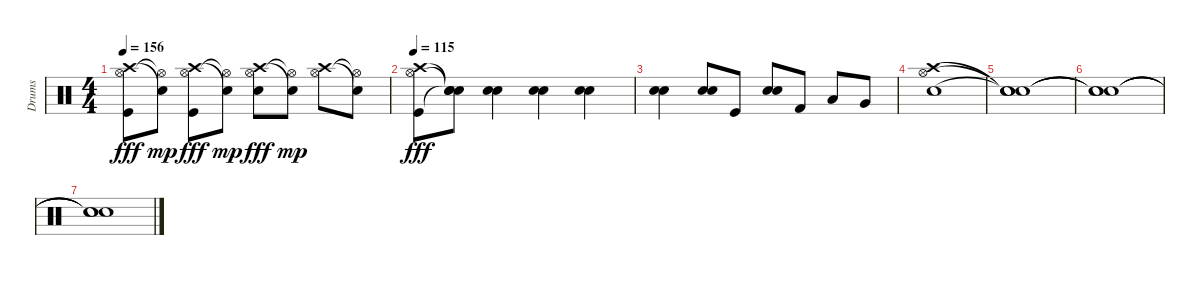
\track ("Drums" "Drums") {instrument percussion}
\staff {score}
\articulation defaults
\ts (4 4)
\tempo 156
\clef neutral
\ks c
("Crash high (hit)" "Hi-Hat (open)" "Kick (hit)").8{dy fff} ("Snare (hit)"{t} "Hi-Hat (open)"{t}).8{dy mp} ("Crash high (hit)" "Hi-Hat (open)" "Kick (hit)").8{dy fff} ("Snare (hit)"{t} "Hi-Hat (open)"{t}).8{dy mp} ("Crash high (hit)" "Hi-Hat (open)" "Snare (hit) 2").8{dy fff} ("Snare (hit)"{t} "Hi-Hat (open)"{t}).8{dy mp} ("Crash high (hit)" "Hi-Hat (open)").8 ("Snare (hit)"{t} "Hi-Hat (open)"{t}).8 |
\tempo 115
("Crash high (hit)" "Hi-Hat (open)" "Kick (hit)").8{dy fff} ("Snare (hit)"{t} "Snare (hit)"{t} "Snare (hit)"{t}).8 ("Electric Snare (hit)" "Snare (hit) 2").4 ("Electric Snare (hit)" "Snare (hit) 2").4 ("Electric Snare (hit)" "Snare (hit) 2").4 |
("Electric Snare (hit)" "Snare (hit) 2").4 ("Electric Snare (hit)" "Snare (hit) 2").8 "Kick (hit)".8 ("Electric Snare (hit)" "Snare (hit) 2").8 "Kick (hit) 2".8 "Low Tom (hit)".8 "Very Low Tom (hit)".8 |
("Crash high (hit)" "Hi-Hat (open)" "Snare (hit) 2").1 |
("Snare (hit)"{t} "Snare (hit)"{t} "Snare (hit)"{t}).1 |
("Snare (hit)"{t} "Snare (hit)"{t} "Snare (hit)"{t}).1 |
("Snare (hit)"{t} "Snare (hit)"{t} "Snare (hit)"{t}).1
